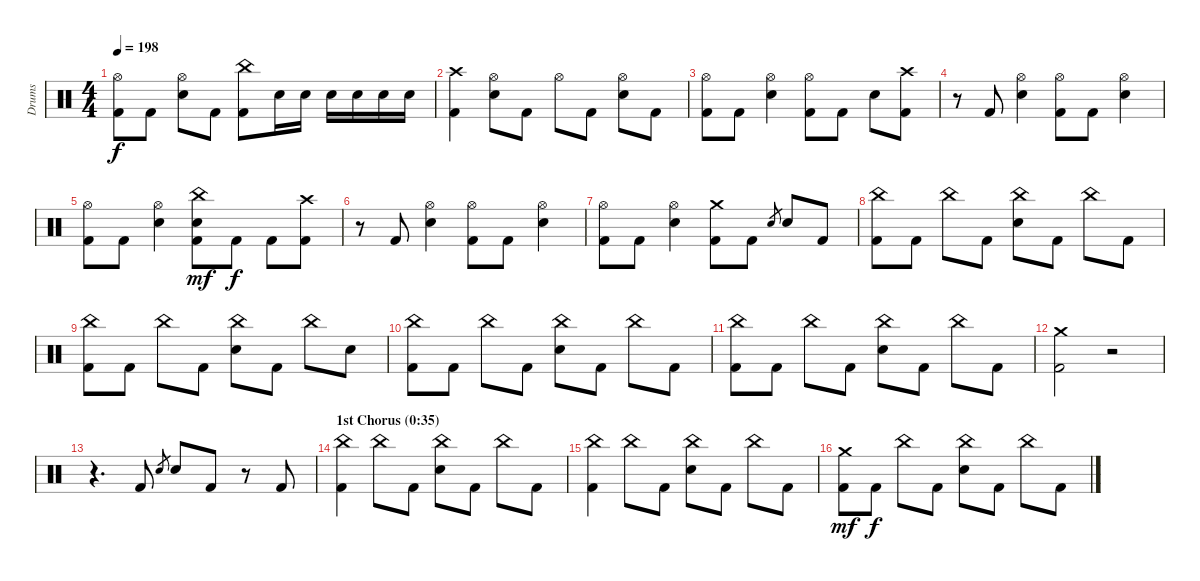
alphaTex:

\track ("Drums" "Drums") {instrument percussion}
\staff {score}
\articulation defaults
\ts (4 4)
\tempo 198
\clef neutral
\ks c
("Hi-Hat (open)" "Kick (hit) 2").8{dy f} "Kick (hit) 2".8 ("Hi-Hat (open)" "Snare (hit) 2").8 "Kick (hit) 2".8 ("China (hit)" "Kick (hit) 2").8 "Snare (hit) 2".16 "Snare (hit) 2".16 "Snare (hit) 2".16 "Snare (hit) 2".16 "Snare (hit) 2".16 "Snare (hit) 2".16 |
("Crash high (hit)" "Kick (hit) 2").4 ("Hi-Hat (open)" "Snare (hit) 2").8 "Kick (hit) 2".8 "Hi-Hat (open)".8 "Kick (hit) 2".8 ("Hi-Hat (open)" "Snare (hit) 2").8 "Kick (hit) 2".8 |
("Hi-Hat (open)" "Kick (hit) 2").8 "Kick (hit) 2".8 ("Hi-Hat (open)" "Snare (hit) 2").4 ("Hi-Hat (open)" "Kick (hit) 2").8 "Kick (hit) 2".8 "Snare (hit) 2".8 ("Crash high (hit)" "Kick (hit) 2").8 |
r.8 "Kick (hit) 2".8 ("Hi-Hat (open)" "Snare (hit) 2").4 ("Hi-Hat (open)" "Kick (hit) 2").8 "Kick (hit) 2".8 ("Hi-Hat (open)" "Snare (hit) 2").4 |
("Hi-Hat (open)" "Kick (hit) 2").8 "Kick (hit) 2".8 ("Hi-Hat (open)" "Snare (hit) 2").4 ("China (hit)" "Snare (hit) 2" "Kick (hit) 2").8{dy mf} "Kick (hit) 2".8{dy f} "Kick (hit) 2".8 ("Crash high (hit)" "Kick (hit) 2").8 |
r.8 "Kick (hit) 2".8 ("Hi-Hat (open)" "Snare (hit) 2").4 ("Hi-Hat (open)" "Kick (hit) 2").8 "Kick (hit) 2".8 ("Hi-Hat (open)" "Snare (hit) 2").4 |
("Hi-Hat (open)" "Kick (hit) 2").8 "Kick (hit) 2".8 ("Hi-Hat (open)" "Snare (hit) 2").4 ("Crash medium (hit)" "Kick (hit) 2").8 "Kick (hit) 2".8 "Snare (hit) 2".8{gr} "Snare (hit) 2".8 "Kick (hit) 2".8 |
("China (hit)" "Kick (hit) 2").8 "Kick (hit) 2".8 "China (hit)".8 "Kick (hit) 2".8 ("China (hit)" "Snare (hit) 2").8 "Kick (hit) 2".8 "China (hit)".8 "Kick (hit) 2".8 |
("China (hit)" "Kick (hit) 2").8 "Kick (hit) 2".8 "China (hit)".8 "Kick (hit) 2".8 ("China (hit)" "Snare (hit) 2").8 "Kick (hit) 2".8 "China (hit)".8 "Snare (hit) 2".8 |
("China (hit)" "Kick (hit) 2").8 "Kick (hit) 2".8 "China (hit)".8 "Kick (hit) 2".8 ("China (hit)" "Snare (hit) 2").8 "Kick (hit) 2".8 "China (hit)".8 "Kick (hit) 2".8 |
("China (hit)" "Kick (hit) 2").8 "Kick (hit) 2".8 "China (hit)".8 "Kick (hit) 2".8 ("China (hit)" "Snare (hit) 2").8 "Kick (hit) 2".8 "China (hit)".8 "Kick (hit) 2".8 |
("Crash medium (hit)" "Kick (hit) 2").2 r.2{volume 0} |
r.4{d} "Kick (hit) 2".8{volume 16} "Snare (hit) 2".8{gr} "Snare (hit) 2".8 "Kick (hit) 2".8 r.8 "Kick (hit) 2".8 |
\section ("" "1st Chorus (0:35)")
("China (hit)" "Kick (hit) 2").4 "China (hit)".8 "Kick (hit) 2".8 ("China (hit)" "Snare (hit) 2").8 "Kick (hit) 2".8 "China (hit)".8 "Kick (hit) 2".8 |
("China (hit)" "Kick (hit) 2").4 "China (hit)".8 "Kick (hit) 2".8 ("China (hit)" "Snare (hit) 2").8 "Kick (hit) 2".8 "China (hit)".8 "Kick (hit) 2".8 |
("Crash medium (hit)" "Kick (hit) 2").8{dy mf} "Kick (hit) 2".8{dy f} "China (hit)".8 "Kick (hit) 2".8 ("China (hit)" "Snare (hit) 2").8 "Kick (hit) 2".8 "China (hit)".8 "Kick (hit) 2".8
